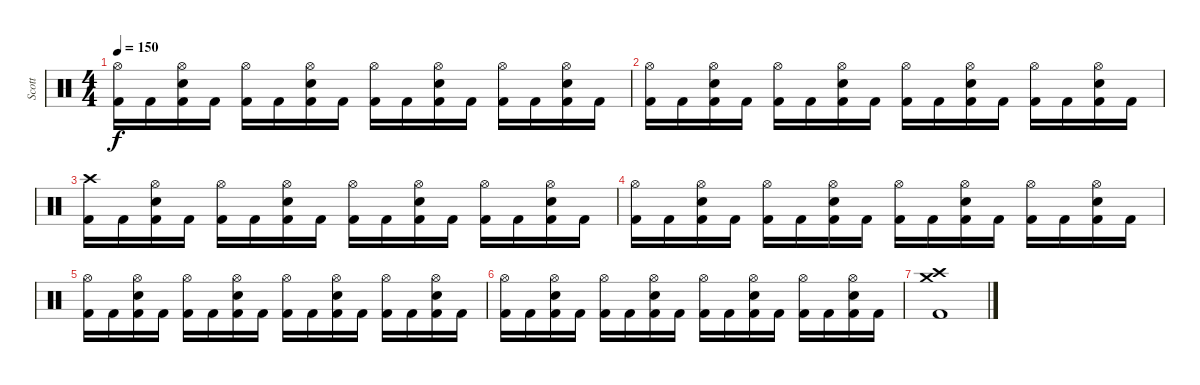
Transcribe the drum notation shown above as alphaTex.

\track ("Scott" "Scott") {instrument percussion}
\staff {score}
\articulation defaults
\ts (4 4)
\tempo 150
\clef neutral
\ks c
("Hi-Hat (open)" "Kick (hit) 2").16{dy f} "Kick (hit) 2".16 ("Hi-Hat (open)" "Snare (hit) 2" "Kick (hit) 2").16 "Kick (hit) 2".16 ("Hi-Hat (open)" "Kick (hit) 2").16 "Kick (hit) 2".16 ("Hi-Hat (open)" "Snare (hit) 2" "Kick (hit) 2").16 "Kick (hit) 2".16 ("Hi-Hat (open)" "Kick (hit) 2").16 "Kick (hit) 2".16 ("Hi-Hat (open)" "Snare (hit) 2" "Kick (hit) 2").16 "Kick (hit) 2".16 ("Hi-Hat (open)" "Kick (hit) 2").16 "Kick (hit) 2".16 ("Hi-Hat (open)" "Snare (hit) 2" "Kick (hit) 2").16 "Kick (hit) 2".16 |
("Hi-Hat (open)" "Kick (hit) 2").16 "Kick (hit) 2".16 ("Hi-Hat (open)" "Snare (hit) 2" "Kick (hit) 2").16 "Kick (hit) 2".16 ("Hi-Hat (open)" "Kick (hit) 2").16 "Kick (hit) 2".16 ("Hi-Hat (open)" "Snare (hit) 2" "Kick (hit) 2").16 "Kick (hit) 2".16 ("Hi-Hat (open)" "Kick (hit) 2").16 "Kick (hit) 2".16 ("Hi-Hat (open)" "Snare (hit) 2" "Kick (hit) 2").16 "Kick (hit) 2".16 ("Hi-Hat (open)" "Kick (hit) 2").16 "Kick (hit) 2".16 ("Hi-Hat (open)" "Snare (hit) 2" "Kick (hit) 2").16 "Kick (hit) 2".16 |
("Crash high (hit)" "Kick (hit) 2").16 "Kick (hit) 2".16 ("Hi-Hat (open)" "Snare (hit) 2" "Kick (hit) 2").16 "Kick (hit) 2".16 ("Hi-Hat (open)" "Kick (hit) 2").16 "Kick (hit) 2".16 ("Hi-Hat (open)" "Snare (hit) 2" "Kick (hit) 2").16 "Kick (hit) 2".16 ("Hi-Hat (open)" "Kick (hit) 2").16 "Kick (hit) 2".16 ("Hi-Hat (open)" "Snare (hit) 2" "Kick (hit) 2").16 "Kick (hit) 2".16 ("Hi-Hat (open)" "Kick (hit) 2").16 "Kick (hit) 2".16 ("Hi-Hat (open)" "Snare (hit) 2" "Kick (hit) 2").16 "Kick (hit) 2".16 |
("Hi-Hat (open)" "Kick (hit) 2").16 "Kick (hit) 2".16 ("Hi-Hat (open)" "Snare (hit) 2" "Kick (hit) 2").16 "Kick (hit) 2".16 ("Hi-Hat (open)" "Kick (hit) 2").16 "Kick (hit) 2".16 ("Hi-Hat (open)" "Snare (hit) 2" "Kick (hit) 2").16 "Kick (hit) 2".16 ("Hi-Hat (open)" "Kick (hit) 2").16 "Kick (hit) 2".16 ("Hi-Hat (open)" "Snare (hit) 2" "Kick (hit) 2").16 "Kick (hit) 2".16 ("Hi-Hat (open)" "Kick (hit) 2").16 "Kick (hit) 2".16 ("Hi-Hat (open)" "Snare (hit) 2" "Kick (hit) 2").16 "Kick (hit) 2".16 |
("Hi-Hat (open)" "Kick (hit) 2").16 "Kick (hit) 2".16 ("Hi-Hat (open)" "Snare (hit) 2" "Kick (hit) 2").16 "Kick (hit) 2".16 ("Hi-Hat (open)" "Kick (hit) 2").16 "Kick (hit) 2".16 ("Hi-Hat (open)" "Snare (hit) 2" "Kick (hit) 2").16 "Kick (hit) 2".16 ("Hi-Hat (open)" "Kick (hit) 2").16 "Kick (hit) 2".16 ("Hi-Hat (open)" "Snare (hit) 2" "Kick (hit) 2").16 "Kick (hit) 2".16 ("Hi-Hat (open)" "Kick (hit) 2").16 "Kick (hit) 2".16 ("Hi-Hat (open)" "Snare (hit) 2" "Kick (hit) 2").16 "Kick (hit) 2".16 |
("Hi-Hat (open)" "Kick (hit) 2").16 "Kick (hit) 2".16 ("Hi-Hat (open)" "Snare (hit) 2" "Kick (hit) 2").16 "Kick (hit) 2".16 ("Hi-Hat (open)" "Kick (hit) 2").16 "Kick (hit) 2".16 ("Hi-Hat (open)" "Snare (hit) 2" "Kick (hit) 2").16 "Kick (hit) 2".16 ("Hi-Hat (open)" "Kick (hit) 2").16 "Kick (hit) 2".16 ("Hi-Hat (open)" "Snare (hit) 2" "Kick (hit) 2").16 "Kick (hit) 2".16 ("Hi-Hat (open)" "Kick (hit) 2").16 "Kick (hit) 2".16 ("Hi-Hat (open)" "Snare (hit) 2" "Kick (hit) 2").16 "Kick (hit) 2".16 |
("Crash high (hit)" "Crash medium (hit)" "Kick (hit) 2").1
